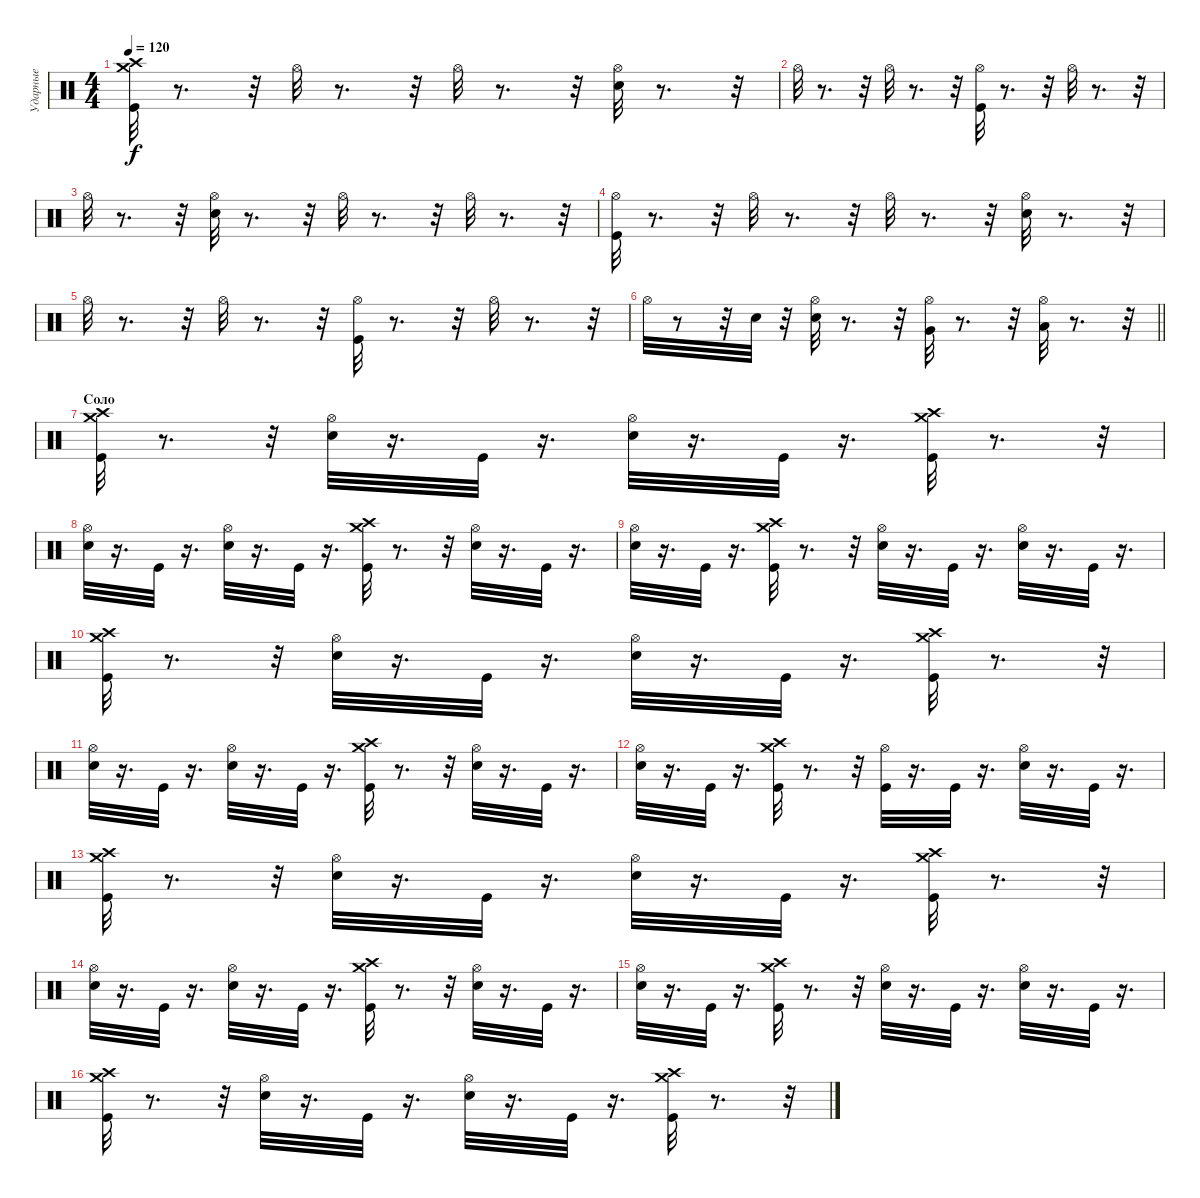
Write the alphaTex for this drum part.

\track ("Ударные" "Ударные") {instrument percussion}
\staff {score}
\articulation defaults
\ts (4 4)
\tempo 120
\clef neutral
\ks c
("Crash high (hit)" "Crash medium (hit)" "Kick (hit)").32{dy f} r.8{d} r.32 "Hi-Hat (open)".32 r.8{d} r.32 "Hi-Hat (open)".32 r.8{d} r.32 ("Snare (hit) 2" "Hi-Hat (open)").32 r.8{d} r.32 |
"Hi-Hat (open)".32 r.8{d} r.32 "Hi-Hat (open)".32 r.8{d} r.32 ("Hi-Hat (open)" "Kick (hit)").32 r.8{d} r.32 "Hi-Hat (open)".32 r.8{d} r.32 |
"Hi-Hat (open)".32 r.8{d} r.32 ("Hi-Hat (open)" "Snare (hit) 2").32 r.8{d} r.32 "Hi-Hat (open)".32 r.8{d} r.32 "Hi-Hat (open)".32 r.8{d} r.32 |
("Hi-Hat (open)" "Kick (hit)").32 r.8{d} r.32 "Hi-Hat (open)".32 r.8{d} r.32 "Hi-Hat (open)".32 r.8{d} r.32 ("Hi-Hat (open)" "Snare (hit) 2").32 r.8{d} r.32 |
"Hi-Hat (open)".32 r.8{d} r.32 "Hi-Hat (open)".32 r.8{d} r.32 ("Hi-Hat (open)" "Kick (hit)").32 r.8{d} r.32 "Hi-Hat (open)".32 r.8{d} r.32 |
\barLineRight lightlight "Hi-Hat (open)".32
r.8 r.32 "Snare (hit) 2".32 r.32 ("Hi-Hat (open)" "Snare (hit) 2").32 r.8{d} r.32 ("Very Low Tom (hit)" "Hi-Hat (open)").32 r.8{d} r.32 ("Low Floor Tom (hit)" "Hi-Hat (open)").32 r.8{d} r.32 |
\section ("" "Соло")
("Crash medium (hit)" "Crash high (hit)" "Kick (hit)").32 r.8{d} r.32 ("Hi-Hat (open)" "Snare (hit) 2").32 r.16{d} "Kick (hit)".32 r.16{d} ("Hi-Hat (open)" "Snare (hit) 2").32 r.16{d} "Kick (hit)".32 r.16{d} ("Crash medium (hit)" "Crash high (hit)" "Kick (hit)").32 r.8{d} r.32 |
("Hi-Hat (open)" "Snare (hit) 2").32 r.16{d} "Kick (hit)".32 r.16{d} ("Hi-Hat (open)" "Snare (hit) 2").32 r.16{d} "Kick (hit)".32 r.16{d} ("Crash high (hit)" "Crash medium (hit)" "Kick (hit)").32 r.8{d} r.32 ("Hi-Hat (open)" "Snare (hit) 2").32 r.16{d} "Kick (hit)".32 r.16{d} |
("Hi-Hat (open)" "Snare (hit) 2").32 r.16{d} "Kick (hit)".32 r.16{d} ("Crash medium (hit)" "Crash high (hit)" "Kick (hit)").32 r.8{d} r.32 ("Hi-Hat (open)" "Snare (hit) 2").32 r.16{d} "Kick (hit)".32 r.16{d} ("Hi-Hat (open)" "Snare (hit) 2").32 r.16{d} "Kick (hit)".32 r.16{d} |
("Crash medium (hit)" "Crash high (hit)" "Kick (hit)").32 r.8{d} r.32 ("Hi-Hat (open)" "Snare (hit) 2").32 r.16{d} "Kick (hit)".32 r.16{d} ("Hi-Hat (open)" "Snare (hit) 2").32 r.16{d} "Kick (hit)".32 r.16{d} ("Kick (hit)" "Crash medium (hit)" "Crash high (hit)").32 r.8{d} r.32 |
("Hi-Hat (open)" "Snare (hit) 2").32 r.16{d} "Kick (hit)".32 r.16{d} ("Hi-Hat (open)" "Snare (hit) 2").32 r.16{d} "Kick (hit)".32 r.16{d} ("Crash high (hit)" "Crash medium (hit)" "Kick (hit)").32 r.8{d} r.32 ("Hi-Hat (open)" "Snare (hit) 2").32 r.16{d} "Kick (hit)".32 r.16{d} |
("Hi-Hat (open)" "Snare (hit) 2").32 r.16{d} "Kick (hit)".32 r.16{d} ("Crash high (hit)" "Crash medium (hit)" "Kick (hit)").32 r.8{d} r.32 ("Hi-Hat (open)" "Kick (hit)").32 r.16{d} "Kick (hit)".32 r.16{d} ("Hi-Hat (open)" "Snare (hit) 2").32 r.16{d} "Kick (hit)".32 r.16{d} |
("Crash medium (hit)" "Crash high (hit)" "Kick (hit)").32 r.8{d} r.32 ("Hi-Hat (open)" "Snare (hit) 2").32 r.16{d} "Kick (hit)".32 r.16{d} ("Hi-Hat (open)" "Snare (hit) 2").32 r.16{d} "Kick (hit)".32 r.16{d} ("Crash medium (hit)" "Crash high (hit)" "Kick (hit)").32 r.8{d} r.32 |
("Hi-Hat (open)" "Snare (hit) 2").32 r.16{d} "Kick (hit)".32 r.16{d} ("Hi-Hat (open)" "Snare (hit) 2").32 r.16{d} "Kick (hit)".32 r.16{d} ("Crash high (hit)" "Crash medium (hit)" "Kick (hit)").32 r.8{d} r.32 ("Hi-Hat (open)" "Snare (hit) 2").32 r.16{d} "Kick (hit)".32 r.16{d} |
("Hi-Hat (open)" "Snare (hit) 2").32 r.16{d} "Kick (hit)".32 r.16{d} ("Crash medium (hit)" "Crash high (hit)" "Kick (hit)").32 r.8{d} r.32 ("Hi-Hat (open)" "Snare (hit) 2").32 r.16{d} "Kick (hit)".32 r.16{d} ("Hi-Hat (open)" "Snare (hit) 2").32 r.16{d} "Kick (hit)".32 r.16{d} |
("Crash medium (hit)" "Crash high (hit)" "Kick (hit)").32 r.8{d} r.32 ("Hi-Hat (open)" "Snare (hit) 2").32 r.16{d} "Kick (hit)".32 r.16{d} ("Hi-Hat (open)" "Snare (hit) 2").32 r.16{d} "Kick (hit)".32 r.16{d} ("Kick (hit)" "Crash medium (hit)" "Crash high (hit)").32 r.8{d} r.32
